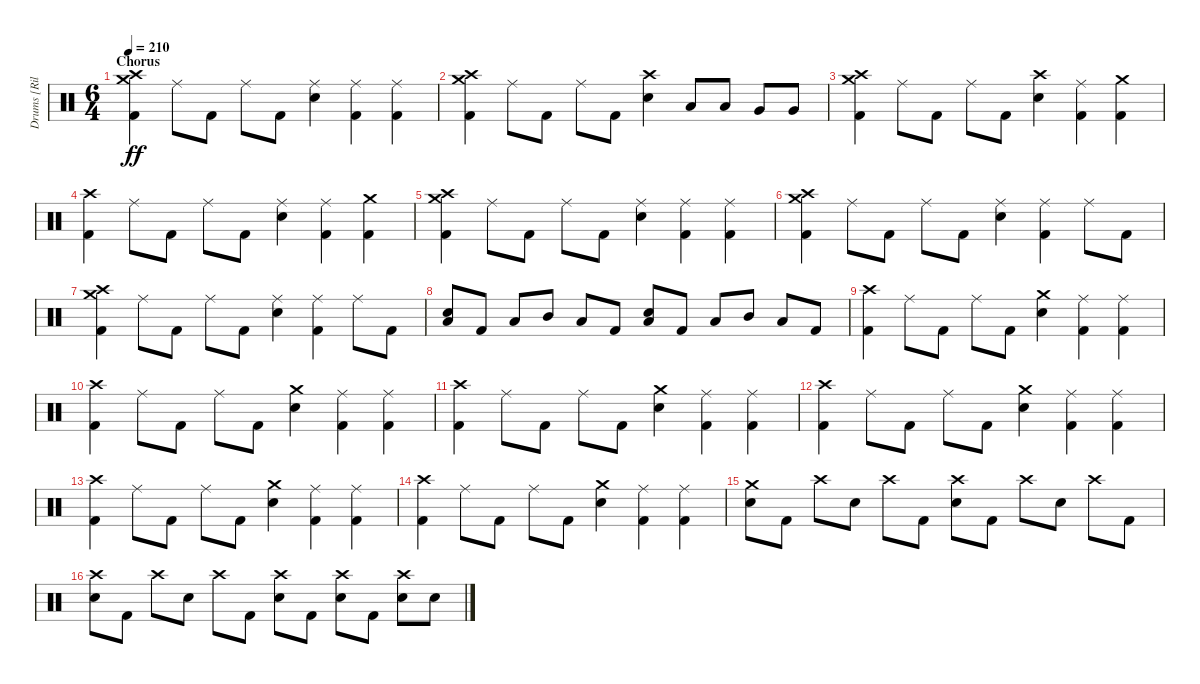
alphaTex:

\track ("Drums [Riley]" "Drums [Ril") {instrument percussion}
\staff {score}
\articulation defaults
\ts (6 4)
\section ("" "Chorus")
\tempo 210
\clef neutral
\ks c
("Crash medium (hit)" "Crash high (hit)" "Kick (hit) 2").4{dy ff} "Ride (middle)".8 "Kick (hit) 2".8 "Ride (middle)".8 "Kick (hit) 2".8 ("Ride (middle)" "Electric Snare (hit)").4 ("Ride (middle)" "Kick (hit) 2").4 ("Ride (middle)" "Kick (hit) 2").4 |
("Crash medium (hit)" "Crash high (hit)" "Kick (hit) 2").4 "Ride (middle)".8 "Kick (hit) 2".8 "Ride (middle)".8 "Kick (hit) 2".8 ("Crash high (hit)" "Electric Snare (hit)").4 "Low Tom (hit)".8 "Low Tom (hit)".8 "Very Low Tom (hit)".8 "Very Low Tom (hit)".8 |
("Crash medium (hit)" "Crash high (hit)" "Kick (hit) 2").4 "Ride (middle)".8 "Kick (hit) 2".8 "Ride (middle)".8 "Kick (hit) 2".8 ("Crash high (hit)" "Electric Snare (hit)").4 ("Ride (middle)" "Kick (hit) 2").4 ("Crash medium (hit)" "Kick (hit) 2").4 |
("Crash high (hit)" "Kick (hit) 2").4 "Ride (middle)".8 "Kick (hit) 2".8 "Ride (middle)".8 "Kick (hit) 2".8 ("Ride (middle)" "Electric Snare (hit)").4 ("Ride (middle)" "Kick (hit) 2").4 ("Crash medium (hit)" "Kick (hit) 2").4 |
("Crash medium (hit)" "Crash high (hit)" "Kick (hit) 2").4 "Ride (middle)".8 "Kick (hit) 2".8 "Ride (middle)".8 "Kick (hit) 2".8 ("Ride (middle)" "Electric Snare (hit)").4 ("Ride (middle)" "Kick (hit) 2").4 ("Ride (middle)" "Kick (hit) 2").4 |
("Crash medium (hit)" "Crash high (hit)" "Kick (hit) 2").4 "Ride (middle)".8 "Kick (hit) 2".8 "Ride (middle)".8 "Kick (hit) 2".8 ("Ride (middle)" "Electric Snare (hit)").4 ("Ride (middle)" "Kick (hit) 2").4 "Ride (middle)".8 "Kick (hit) 2".8 |
("Crash medium (hit)" "Crash high (hit)" "Kick (hit) 2").4 "Ride (middle)".8 "Kick (hit) 2".8 "Ride (middle)".8 "Kick (hit) 2".8 ("Ride (middle)" "Electric Snare (hit)").4 ("Ride (middle)" "Kick (hit) 2").4 "Ride (middle)".8 "Kick (hit) 2".8 |
("Low Tom (hit)" "Electric Snare (hit)").8{bu 60} "Kick (hit) 2".8 "Low Tom (hit)".8 "Mid Tom (hit)".8 "Low Tom (hit)".8 "Kick (hit) 2".8 ("Low Tom (hit)" "Electric Snare (hit)").8{bu 60} "Kick (hit) 2".8 "Low Tom (hit)".8 "Mid Tom (hit)".8 "Low Tom (hit)".8 "Kick (hit) 2".8 |
("Crash high (hit)" "Kick (hit) 2").4 "Ride (middle)".8 "Kick (hit) 2".8 "Ride (middle)".8 "Kick (hit) 2".8 ("Crash medium (hit)" "Electric Snare (hit)").4 ("Ride (middle)" "Kick (hit) 2").4 ("Ride (middle)" "Kick (hit) 2").4 |
("Crash high (hit)" "Kick (hit) 2").4 "Ride (middle)".8 "Kick (hit) 2".8 "Ride (middle)".8 "Kick (hit) 2".8 ("Crash medium (hit)" "Electric Snare (hit)").4 ("Ride (middle)" "Kick (hit) 2").4 ("Ride (middle)" "Kick (hit) 2").4 |
("Crash high (hit)" "Kick (hit) 2").4 "Ride (middle)".8 "Kick (hit) 2".8 "Ride (middle)".8 "Kick (hit) 2".8 ("Crash medium (hit)" "Electric Snare (hit)").4 ("Ride (middle)" "Kick (hit) 2").4 ("Ride (middle)" "Kick (hit) 2").4 |
("Crash high (hit)" "Kick (hit) 2").4 "Ride (middle)".8 "Kick (hit) 2".8 "Ride (middle)".8 "Kick (hit) 2".8 ("Crash medium (hit)" "Electric Snare (hit)").4 ("Ride (middle)" "Kick (hit) 2").4 ("Ride (middle)" "Kick (hit) 2").4 |
("Crash high (hit)" "Kick (hit) 2").4 "Ride (middle)".8 "Kick (hit) 2".8 "Ride (middle)".8 "Kick (hit) 2".8 ("Crash medium (hit)" "Electric Snare (hit)").4 ("Ride (middle)" "Kick (hit) 2").4 ("Ride (middle)" "Kick (hit) 2").4 |
("Crash high (hit)" "Kick (hit) 2").4 "Ride (middle)".8 "Kick (hit) 2".8 "Ride (middle)".8 "Kick (hit) 2".8 ("Crash medium (hit)" "Electric Snare (hit)").4 ("Ride (middle)" "Kick (hit) 2").4 ("Ride (middle)" "Kick (hit) 2").4 |
("Crash medium (hit)" "Electric Snare (hit)").8 "Kick (hit) 2".8 "Crash high (hit)".8 "Electric Snare (hit)".8 "Crash high (hit)".8 "Kick (hit) 2".8 ("Crash high (hit)" "Electric Snare (hit)").8 "Kick (hit) 2".8 "Crash high (hit)".8 "Electric Snare (hit)".8 "Crash high (hit)".8 "Kick (hit) 2".8 |
("Crash high (hit)" "Electric Snare (hit)").8 "Kick (hit) 2".8 "Crash high (hit)".8 "Electric Snare (hit)".8 "Crash high (hit)".8 "Kick (hit) 2".8 ("Crash high (hit)" "Electric Snare (hit)").8 "Kick (hit) 2".8 ("Crash high (hit)" "Electric Snare (hit)").8 "Kick (hit) 2".8 ("Crash high (hit)" "Electric Snare (hit)").8 "Electric Snare (hit)".8
